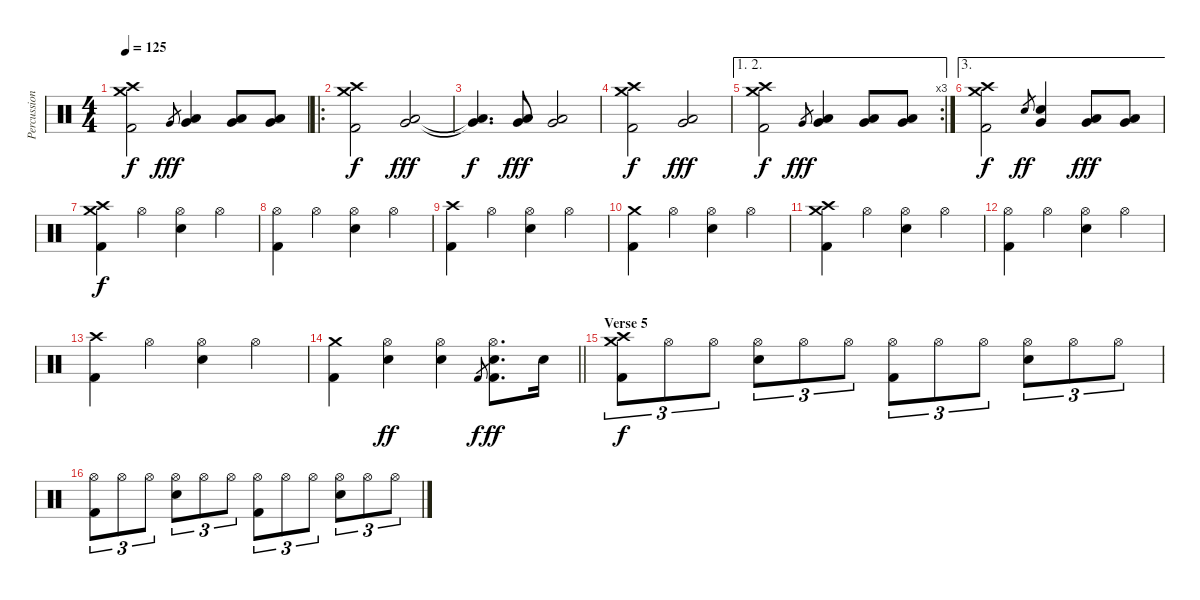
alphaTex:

\track ("Percussion" "Percussion") {instrument percussion}
\staff {score}
\articulation defaults
\ts (4 4)
\tempo 125
\clef neutral
\ks c
("Kick (hit) 2" "Crash medium (hit)" "Crash high (hit)").2{dy f} "Very Low Tom (hit)".8{gr dy fff} ("Very Low Tom (hit)" "Low Tom (hit)").4 ("Very Low Tom (hit)" "Low Tom (hit)").8 ("Very Low Tom (hit)" "Low Tom (hit)").8 |
\ro
("Kick (hit) 2" "Crash high (hit)" "Crash medium (hit)").2{dy f} ("Low Tom (hit)" "Very Low Tom (hit)").2{dy fff} |
("Low Tom (hit)"{t} "Very Low Tom (hit)"{t}).4{d dy f} ("Low Tom (hit)" "Very Low Tom (hit)").8{dy fff} ("Low Tom (hit)" "Very Low Tom (hit)").2 |
("Kick (hit) 2" "Crash medium (hit)" "Crash high (hit)").2{dy f} ("Very Low Tom (hit)" "Low Tom (hit)").2{dy fff} |
\ae (1 2)
\rc 3
("Kick (hit) 2" "Crash medium (hit)" "Crash high (hit)").2{dy f} "Very Low Tom (hit)".8{gr dy fff} ("Very Low Tom (hit)" "Low Tom (hit)").4 ("Very Low Tom (hit)" "Low Tom (hit)").8 ("Very Low Tom (hit)" "Low Tom (hit)").8 |
\ae 3
("Kick (hit) 2" "Crash medium (hit)" "Crash high (hit)").2{dy f} "Snare (hit) 2".8{gr dy ff} ("Very Low Tom (hit)" "Snare (hit) 2").4 ("Very Low Tom (hit)" "Low Tom (hit)").8{dy fff} ("Very Low Tom (hit)" "Low Tom (hit)").8 |
("Crash medium (hit)" "Crash high (hit)" "Kick (hit) 2").4{dy f} "Hi-Hat (open)".4 ("Snare (hit) 2" "Hi-Hat (open)").4 "Hi-Hat (open)".4 |
("Hi-Hat (open)" "Kick (hit) 2").4 "Hi-Hat (open)".4 ("Snare (hit) 2" "Hi-Hat (open)").4 "Hi-Hat (open)".4 |
("Crash high (hit)" "Kick (hit) 2").4 "Hi-Hat (open)".4 ("Snare (hit) 2" "Hi-Hat (open)").4 "Hi-Hat (open)".4 |
("Crash medium (hit)" "Kick (hit) 2").4 "Hi-Hat (open)".4 ("Snare (hit) 2" "Hi-Hat (open)").4 "Hi-Hat (open)".4 |
("Crash medium (hit)" "Crash high (hit)" "Kick (hit) 2").4 "Hi-Hat (open)".4 ("Snare (hit) 2" "Hi-Hat (open)").4 "Hi-Hat (open)".4 |
("Hi-Hat (open)" "Kick (hit) 2").4 "Hi-Hat (open)".4 ("Snare (hit) 2" "Hi-Hat (open)").4 "Hi-Hat (open)".4 |
("Crash high (hit)" "Kick (hit) 2").4 "Hi-Hat (open)".4 ("Snare (hit) 2" "Hi-Hat (open)").4 "Hi-Hat (open)".4 |
\barLineRight lightlight
("Crash medium (hit)" "Kick (hit) 2").4 ("Hi-Hat (open)" "Snare (hit) 2").4{dy ff} ("Snare (hit) 2" "Hi-Hat (open)").4 "Kick (hit) 2".8{gr dy f} ("Hi-Hat (open)" "Snare (hit) 2" "Kick (hit) 2").8{d dy ff} "Snare (hit) 2".16 |
\section ("" "Verse 5")
("Crash medium (hit)" "Crash high (hit)" "Kick (hit) 2").8{tu (3 2) dy f} "Hi-Hat (open)".8{tu (3 2)} "Hi-Hat (open)".8{tu (3 2)} ("Snare (hit) 2" "Hi-Hat (open)").8{tu (3 2)} "Hi-Hat (open)".8{tu (3 2)} "Hi-Hat (open)".8{tu (3 2)} ("Hi-Hat (open)" "Kick (hit) 2").8{tu (3 2)} "Hi-Hat (open)".8{tu (3 2)} "Hi-Hat (open)".8{tu (3 2)} ("Snare (hit) 2" "Hi-Hat (open)").8{tu (3 2)} "Hi-Hat (open)".8{tu (3 2)} "Hi-Hat (open)".8{tu (3 2)} |
("Hi-Hat (open)" "Kick (hit) 2").8{tu (3 2)} "Hi-Hat (open)".8{tu (3 2)} "Hi-Hat (open)".8{tu (3 2)} ("Snare (hit) 2" "Hi-Hat (open)").8{tu (3 2)} "Hi-Hat (open)".8{tu (3 2)} "Hi-Hat (open)".8{tu (3 2)} ("Hi-Hat (open)" "Kick (hit) 2").8{tu (3 2)} "Hi-Hat (open)".8{tu (3 2)} "Hi-Hat (open)".8{tu (3 2)} ("Snare (hit) 2" "Hi-Hat (open)").8{tu (3 2)} "Hi-Hat (open)".8{tu (3 2)} "Hi-Hat (open)".8{tu (3 2)}
